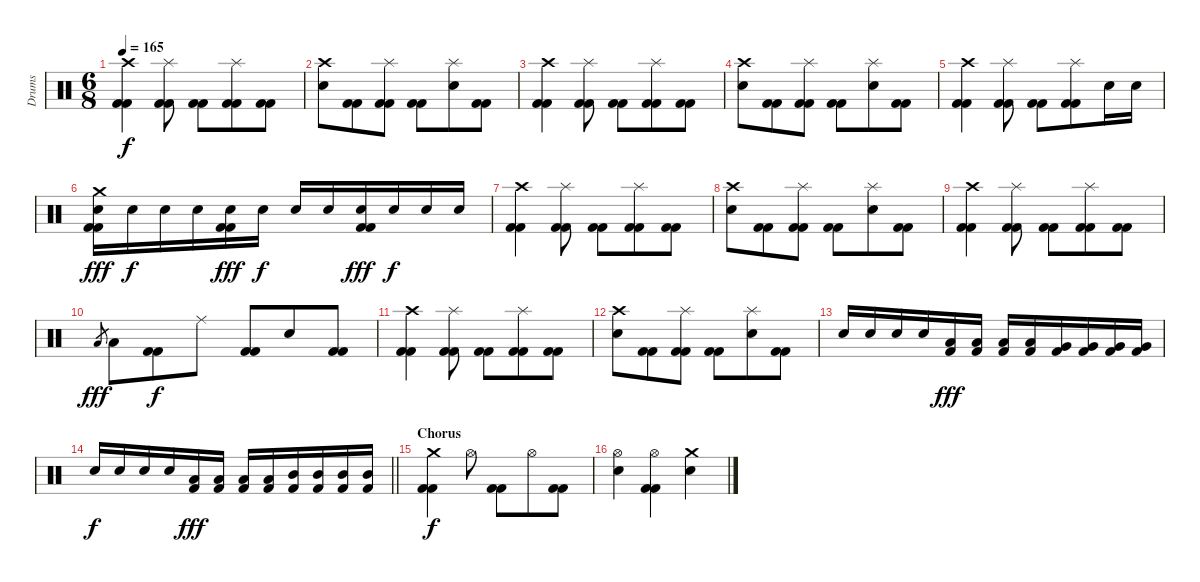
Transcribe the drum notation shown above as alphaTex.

\track ("Drums" "Drums") {instrument percussion}
\staff {score}
\articulation defaults
\ts (6 8)
\tempo 165
\clef neutral
\ks c
("Crash high (hit)" "Kick (hit) 2" "Kick (hit) 2").4{dy f} ("Splash (hit)" "Kick (hit) 2" "Kick (hit) 2").8 ("Kick (hit) 2" "Kick (hit) 2").8 ("Splash (hit)" "Kick (hit) 2" "Kick (hit) 2").8 ("Kick (hit) 2" "Kick (hit) 2").8 |
("Crash high (hit)" "Electric Snare (hit)").8 ("Kick (hit) 2" "Kick (hit) 2").8 ("Splash (hit)" "Kick (hit) 2" "Kick (hit) 2").8 ("Kick (hit) 2" "Kick (hit) 2").8 ("Splash (hit)" "Electric Snare (hit)").8 ("Kick (hit) 2" "Kick (hit) 2").8 |
("Crash high (hit)" "Kick (hit) 2" "Kick (hit) 2").4 ("Splash (hit)" "Kick (hit) 2" "Kick (hit) 2").8 ("Kick (hit) 2" "Kick (hit) 2").8 ("Splash (hit)" "Kick (hit) 2" "Kick (hit) 2").8 ("Kick (hit) 2" "Kick (hit) 2").8 |
("Crash high (hit)" "Electric Snare (hit)").8 ("Kick (hit) 2" "Kick (hit) 2").8 ("Splash (hit)" "Kick (hit) 2" "Kick (hit) 2").8 ("Kick (hit) 2" "Kick (hit) 2").8 ("Splash (hit)" "Electric Snare (hit)").8 ("Kick (hit) 2" "Kick (hit) 2").8 |
("Crash high (hit)" "Kick (hit) 2" "Kick (hit) 2").4 ("Splash (hit)" "Kick (hit) 2" "Kick (hit) 2").8 ("Kick (hit) 2" "Kick (hit) 2").8 ("Splash (hit)" "Kick (hit) 2" "Kick (hit) 2").8 "Electric Snare (hit)".16 "Electric Snare (hit)".16 |
("Crash medium (hit)" "Electric Snare (hit)" "Kick (hit) 2" "Kick (hit) 2").16{dy fff} "Electric Snare (hit)".16{dy f} "Electric Snare (hit)".16 "Electric Snare (hit)".16 ("Electric Snare (hit)" "Kick (hit) 2" "Kick (hit) 2").16{dy fff} "Electric Snare (hit)".16{dy f} "Electric Snare (hit)".16 "Electric Snare (hit)".16 ("Electric Snare (hit)" "Kick (hit) 2" "Kick (hit) 2").16{dy fff} "Electric Snare (hit)".16{dy f} "Electric Snare (hit)".16 "Electric Snare (hit)".16 |
("Crash high (hit)" "Kick (hit) 2" "Kick (hit) 2").4 ("Splash (hit)" "Kick (hit) 2" "Kick (hit) 2").8 ("Kick (hit) 2" "Kick (hit) 2").8 ("Splash (hit)" "Kick (hit) 2" "Kick (hit) 2").8 ("Kick (hit) 2" "Kick (hit) 2").8 |
("Crash high (hit)" "Electric Snare (hit)").8 ("Kick (hit) 2" "Kick (hit) 2").8 ("Splash (hit)" "Kick (hit) 2" "Kick (hit) 2").8 ("Kick (hit) 2" "Kick (hit) 2").8 ("Splash (hit)" "Electric Snare (hit)").8 ("Kick (hit) 2" "Kick (hit) 2").8 |
("Crash high (hit)" "Kick (hit) 2" "Kick (hit) 2").4 ("Splash (hit)" "Kick (hit) 2" "Kick (hit) 2").8 ("Kick (hit) 2" "Kick (hit) 2").8 ("Splash (hit)" "Kick (hit) 2" "Kick (hit) 2").8 ("Kick (hit) 2" "Kick (hit) 2").8 |
"Low Tom (hit)".8{gr dy fff} "Low Tom (hit)".8 ("Kick (hit) 2" "Kick (hit) 2").8{dy f} "Ride (middle)".8 ("Kick (hit) 2" "Kick (hit) 2").8 "Electric Snare (hit)".8 ("Kick (hit) 2" "Kick (hit) 2").8 |
("Crash high (hit)" "Kick (hit) 2" "Kick (hit) 2").4 ("Splash (hit)" "Kick (hit) 2" "Kick (hit) 2").8 ("Kick (hit) 2" "Kick (hit) 2").8 ("Splash (hit)" "Kick (hit) 2" "Kick (hit) 2").8 ("Kick (hit) 2" "Kick (hit) 2").8 |
("Crash high (hit)" "Electric Snare (hit)").8 ("Kick (hit) 2" "Kick (hit) 2").8 ("Splash (hit)" "Kick (hit) 2" "Kick (hit) 2").8 ("Kick (hit) 2" "Kick (hit) 2").8 ("Splash (hit)" "Electric Snare (hit)").8 ("Kick (hit) 2" "Kick (hit) 2").8 |
"Electric Snare (hit)".16 "Electric Snare (hit)".16 "Electric Snare (hit)".16 "Electric Snare (hit)".16 ("Low Tom (hit)" "Kick (hit) 2").16{dy fff} ("Low Tom (hit)" "Kick (hit) 2").16 ("Low Tom (hit)" "Kick (hit) 2").16 ("Low Tom (hit)" "Kick (hit) 2").16 ("Very Low Tom (hit)" "Kick (hit) 2").16 ("Very Low Tom (hit)" "Kick (hit) 2").16 ("Very Low Tom (hit)" "Kick (hit) 2").16 ("Very Low Tom (hit)" "Kick (hit) 2").16 |
\barLineRight lightlight "Electric Snare (hit)".16{dy f} "Electric Snare (hit)".16 "Electric Snare (hit)".16 "Electric Snare (hit)".16
("Low Tom (hit)" "Kick (hit) 2").16{dy fff} ("Low Tom (hit)" "Kick (hit) 2").16 ("Low Tom (hit)" "Kick (hit) 2").16 ("Low Tom (hit)" "Kick (hit) 2").16 ("Mid Tom (hit)" "Kick (hit) 2").16 ("Mid Tom (hit)" "Kick (hit) 2").16 ("Mid Tom (hit)" "Kick (hit) 2").16 ("Mid Tom (hit)" "Kick (hit) 2").16 |
\section ("" "Chorus")
("Crash medium (hit)" "Kick (hit) 2" "Kick (hit) 2").4{dy f} "Hi-Hat (open)".8 ("Kick (hit) 2" "Kick (hit) 2").8 "Hi-Hat (open)".8 ("Kick (hit) 2" "Kick (hit) 2").8 |
("Hi-Hat (open)" "Electric Snare (hit)").4 ("Hi-Hat (open)" "Kick (hit) 2" "Kick (hit) 2").4 ("Crash medium (hit)" "Electric Snare (hit)").4
